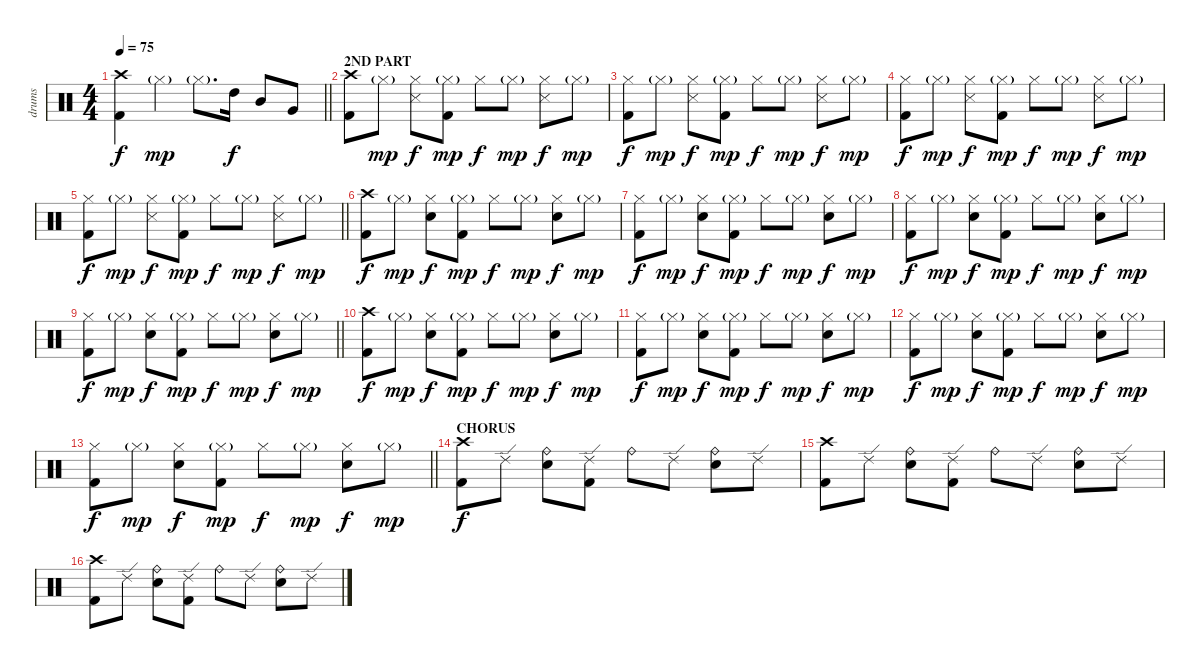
\track ("drums" "drums") {instrument percussion}
\staff
\articulation defaults
\ts (4 4)
\tempo 75
\clef neutral
\barLineRight lightlight
\ks c
("Crash high (hit)" "Kick (hit) 2").4{dy f} "Hi-Hat (closed)"{g}.4{dy mp} "Hi-Hat (closed)"{g}.8{d} "High Tom (hit)".16{dy f} "Mid Tom (hit)".8 "Very Low Tom (hit)".8 |
\section ("" "2ND PART")
("Crash high (hit)" "Kick (hit) 2").8 "Hi-Hat (closed)"{g}.8{dy mp} ("Hi-Hat (closed)" "Snare (side stick) 3").8{dy f} ("Hi-Hat (closed)"{g} "Kick (hit) 2").8{dy mp} "Hi-Hat (closed)".8{dy f} "Hi-Hat (closed)"{g}.8{dy mp} ("Hi-Hat (closed)" "Snare (side stick) 3").8{dy f} "Hi-Hat (closed)"{g}.8{dy mp} |
("Hi-Hat (closed)" "Kick (hit) 2").8{dy f} "Hi-Hat (closed)"{g}.8{dy mp} ("Hi-Hat (closed)" "Snare (side stick) 3").8{dy f} ("Hi-Hat (closed)"{g} "Kick (hit) 2").8{dy mp} "Hi-Hat (closed)".8{dy f} "Hi-Hat (closed)"{g}.8{dy mp} ("Hi-Hat (closed)" "Snare (side stick) 3").8{dy f} "Hi-Hat (closed)"{g}.8{dy mp} |
("Hi-Hat (closed)" "Kick (hit) 2").8{dy f} "Hi-Hat (closed)"{g}.8{dy mp} ("Hi-Hat (closed)" "Snare (side stick) 3").8{dy f} ("Hi-Hat (closed)"{g} "Kick (hit) 2").8{dy mp} "Hi-Hat (closed)".8{dy f} "Hi-Hat (closed)"{g}.8{dy mp} ("Hi-Hat (closed)" "Snare (side stick) 3").8{dy f} "Hi-Hat (closed)"{g}.8{dy mp} |
\barLineRight lightlight
("Hi-Hat (closed)" "Kick (hit) 2").8{dy f} "Hi-Hat (closed)"{g}.8{dy mp} ("Hi-Hat (closed)" "Snare (side stick) 3").8{dy f} ("Hi-Hat (closed)"{g} "Kick (hit) 2").8{dy mp} "Hi-Hat (closed)".8{dy f} "Hi-Hat (closed)"{g}.8{dy mp} ("Hi-Hat (closed)" "Snare (side stick) 3").8{dy f} "Hi-Hat (closed)"{g}.8{dy mp} |
("Crash high (hit)" "Kick (hit) 2").8{dy f} "Hi-Hat (closed)"{g}.8{dy mp} ("Hi-Hat (closed)" "Electric Snare (hit)").8{dy f} ("Hi-Hat (closed)"{g} "Kick (hit) 2").8{dy mp} "Hi-Hat (closed)".8{dy f} "Hi-Hat (closed)"{g}.8{dy mp} ("Hi-Hat (closed)" "Electric Snare (hit)").8{dy f} "Hi-Hat (closed)"{g}.8{dy mp} |
("Hi-Hat (closed)" "Kick (hit) 2").8{dy f} "Hi-Hat (closed)"{g}.8{dy mp} ("Hi-Hat (closed)" "Electric Snare (hit)").8{dy f} ("Hi-Hat (closed)"{g} "Kick (hit) 2").8{dy mp} "Hi-Hat (closed)".8{dy f} "Hi-Hat (closed)"{g}.8{dy mp} ("Hi-Hat (closed)" "Electric Snare (hit)").8{dy f} "Hi-Hat (closed)"{g}.8{dy mp} |
("Hi-Hat (closed)" "Kick (hit) 2").8{dy f} "Hi-Hat (closed)"{g}.8{dy mp} ("Hi-Hat (closed)" "Electric Snare (hit)").8{dy f} ("Hi-Hat (closed)"{g} "Kick (hit) 2").8{dy mp} "Hi-Hat (closed)".8{dy f} "Hi-Hat (closed)"{g}.8{dy mp} ("Hi-Hat (closed)" "Electric Snare (hit)").8{dy f} "Hi-Hat (closed)"{g}.8{dy mp} |
\barLineRight lightlight
("Hi-Hat (closed)" "Kick (hit) 2").8{dy f} "Hi-Hat (closed)"{g}.8{dy mp} ("Hi-Hat (closed)" "Electric Snare (hit)").8{dy f} ("Hi-Hat (closed)"{g} "Kick (hit) 2").8{dy mp} "Hi-Hat (closed)".8{dy f} "Hi-Hat (closed)"{g}.8{dy mp} ("Hi-Hat (closed)" "Electric Snare (hit)").8{dy f} "Hi-Hat (closed)"{g}.8{dy mp} |
("Crash high (hit)" "Kick (hit) 2").8{dy f} "Hi-Hat (closed)"{g}.8{dy mp} ("Hi-Hat (closed)" "Electric Snare (hit)").8{dy f} ("Hi-Hat (closed)"{g} "Kick (hit) 2").8{dy mp} "Hi-Hat (closed)".8{dy f} "Hi-Hat (closed)"{g}.8{dy mp} ("Hi-Hat (closed)" "Electric Snare (hit)").8{dy f} "Hi-Hat (closed)"{g}.8{dy mp} |
("Hi-Hat (closed)" "Kick (hit) 2").8{dy f} "Hi-Hat (closed)"{g}.8{dy mp} ("Hi-Hat (closed)" "Electric Snare (hit)").8{dy f} ("Hi-Hat (closed)"{g} "Kick (hit) 2").8{dy mp} "Hi-Hat (closed)".8{dy f} "Hi-Hat (closed)"{g}.8{dy mp} ("Hi-Hat (closed)" "Electric Snare (hit)").8{dy f} "Hi-Hat (closed)"{g}.8{dy mp} |
("Hi-Hat (closed)" "Kick (hit) 2").8{dy f} "Hi-Hat (closed)"{g}.8{dy mp} ("Hi-Hat (closed)" "Electric Snare (hit)").8{dy f} ("Hi-Hat (closed)"{g} "Kick (hit) 2").8{dy mp} "Hi-Hat (closed)".8{dy f} "Hi-Hat (closed)"{g}.8{dy mp} ("Hi-Hat (closed)" "Electric Snare (hit)").8{dy f} "Hi-Hat (closed)"{g}.8{dy mp} |
\barLineRight lightlight
("Hi-Hat (closed)" "Kick (hit) 2").8{dy f} "Hi-Hat (closed)"{g}.8{dy mp} ("Hi-Hat (closed)" "Electric Snare (hit)").8{dy f} ("Hi-Hat (closed)"{g} "Kick (hit) 2").8{dy mp} "Hi-Hat (closed)".8{dy f} "Hi-Hat (closed)"{g}.8{dy mp} ("Hi-Hat (closed)" "Electric Snare (hit)").8{dy f} "Hi-Hat (closed)"{g}.8{dy mp} |
\section ("" "CHORUS")
("Crash high (hit)" "Kick (hit) 2").8{dy f} "Ride (edge) 2".8 ("Ride (bell)" "Electric Snare (hit)").8 ("Ride (edge) 2" "Kick (hit) 2").8 "Ride (bell)".8 "Ride (edge) 2".8 ("Ride (bell)" "Electric Snare (hit)").8 "Ride (edge) 2".8 |
("Crash high (hit)" "Kick (hit) 2").8 "Ride (edge) 2".8 ("Ride (bell)" "Electric Snare (hit)").8 ("Ride (edge) 2" "Kick (hit) 2").8 "Ride (bell)".8 "Ride (edge) 2".8 ("Ride (bell)" "Electric Snare (hit)").8 "Ride (edge) 2".8 |
("Crash high (hit)" "Kick (hit) 2").8 "Ride (edge) 2".8 ("Ride (bell)" "Electric Snare (hit)").8 ("Ride (edge) 2" "Kick (hit) 2").8 "Ride (bell)".8 "Ride (edge) 2".8 ("Ride (bell)" "Electric Snare (hit)").8 "Ride (edge) 2".8
